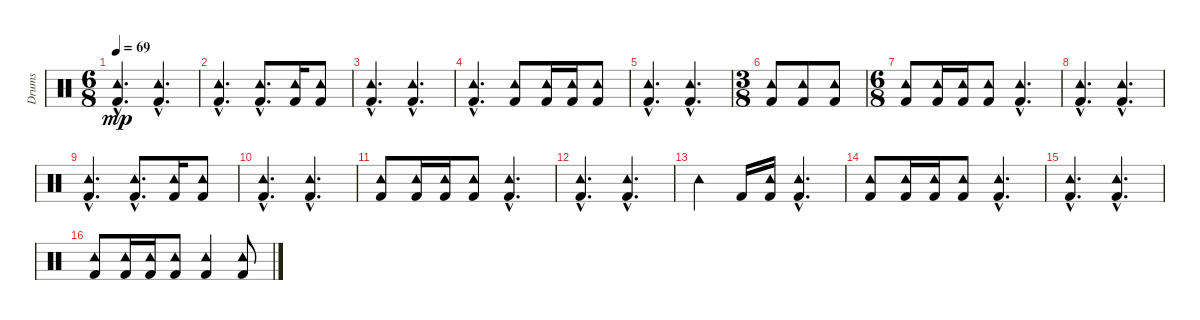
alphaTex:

\track ("Drums" "Drums") {instrument percussion}
\staff {score}
\articulation defaults
\ts (6 8)
\tempo 69
\clef neutral
\ks c
("Tambourine (hit)"{hac} "Kick (hit) 2"{hac}).4{d dy mp} ("Tambourine (hit)"{hac} "Kick (hit) 2"{hac}).4{d} |
("Tambourine (hit)"{hac} "Kick (hit) 2"{hac}).4{d} ("Tambourine (hit)"{hac} "Kick (hit) 2"{hac}).8{d} ("Tambourine (hit)" "Kick (hit) 2").16 ("Tambourine (hit)" "Kick (hit) 2").8 |
("Tambourine (hit)"{hac} "Kick (hit) 2"{hac}).4{d} ("Tambourine (hit)"{hac} "Kick (hit) 2"{hac}).4{d} |
("Tambourine (hit)"{hac} "Kick (hit) 2"{hac}).4{d} ("Tambourine (hit)" "Kick (hit) 2").8 ("Tambourine (hit)" "Kick (hit) 2").16 ("Tambourine (hit)" "Kick (hit) 2").16 ("Tambourine (hit)" "Kick (hit) 2").8 |
("Tambourine (hit)"{hac} "Kick (hit) 2"{hac}).4{d} ("Tambourine (hit)"{hac} "Kick (hit) 2"{hac}).4{d} |
\ts (3 8)
("Tambourine (hit)" "Kick (hit) 2").8 ("Tambourine (hit)" "Kick (hit) 2").8 ("Tambourine (hit)" "Kick (hit) 2").8 |
\ts (6 8)
("Tambourine (hit)" "Kick (hit) 2").8 ("Tambourine (hit)" "Kick (hit) 2").16 ("Tambourine (hit)" "Kick (hit) 2").16 ("Tambourine (hit)" "Kick (hit) 2").8 ("Tambourine (hit)"{hac} "Kick (hit) 2"{hac}).4{d} |
("Tambourine (hit)"{hac} "Kick (hit) 2"{hac}).4{d} ("Tambourine (hit)"{hac} "Kick (hit) 2"{hac}).4{d} |
("Tambourine (hit)"{hac} "Kick (hit) 2"{hac}).4{d} ("Tambourine (hit)"{hac} "Kick (hit) 2"{hac}).8{d} ("Tambourine (hit)" "Kick (hit) 2").16 ("Tambourine (hit)" "Kick (hit) 2").8 |
("Tambourine (hit)"{hac} "Kick (hit) 2"{hac}).4{d} ("Tambourine (hit)"{hac} "Kick (hit) 2"{hac}).4{d} |
("Tambourine (hit)" "Kick (hit) 2").8 ("Tambourine (hit)" "Kick (hit) 2").16 ("Tambourine (hit)" "Kick (hit) 2").16 ("Tambourine (hit)" "Kick (hit) 2").8 ("Tambourine (hit)"{hac} "Kick (hit) 2"{hac}).4{d} |
("Tambourine (hit)"{hac} "Kick (hit) 2"{hac}).4{d} ("Tambourine (hit)"{hac} "Kick (hit) 2").4{d} |
"Tambourine (hit)".4 "Kick (hit) 2".16 ("Tambourine (hit)" "Kick (hit) 2").16 ("Tambourine (hit)"{hac} "Kick (hit) 2"{hac}).4{d} |
("Tambourine (hit)" "Kick (hit) 2").8 ("Tambourine (hit)" "Kick (hit) 2").16 ("Tambourine (hit)" "Kick (hit) 2").16 ("Tambourine (hit)" "Kick (hit) 2").8 ("Tambourine (hit)"{hac} "Kick (hit) 2"{hac}).4{d} |
("Tambourine (hit)"{hac} "Kick (hit) 2"{hac}).4{d} ("Tambourine (hit)"{hac} "Kick (hit) 2"{hac}).4{d} |
("Tambourine (hit)" "Kick (hit) 2").8 ("Tambourine (hit)" "Kick (hit) 2").16 ("Tambourine (hit)" "Kick (hit) 2").16 ("Tambourine (hit)" "Kick (hit) 2").8 ("Tambourine (hit)" "Kick (hit) 2").4 ("Tambourine (hit)" "Kick (hit) 2").8
